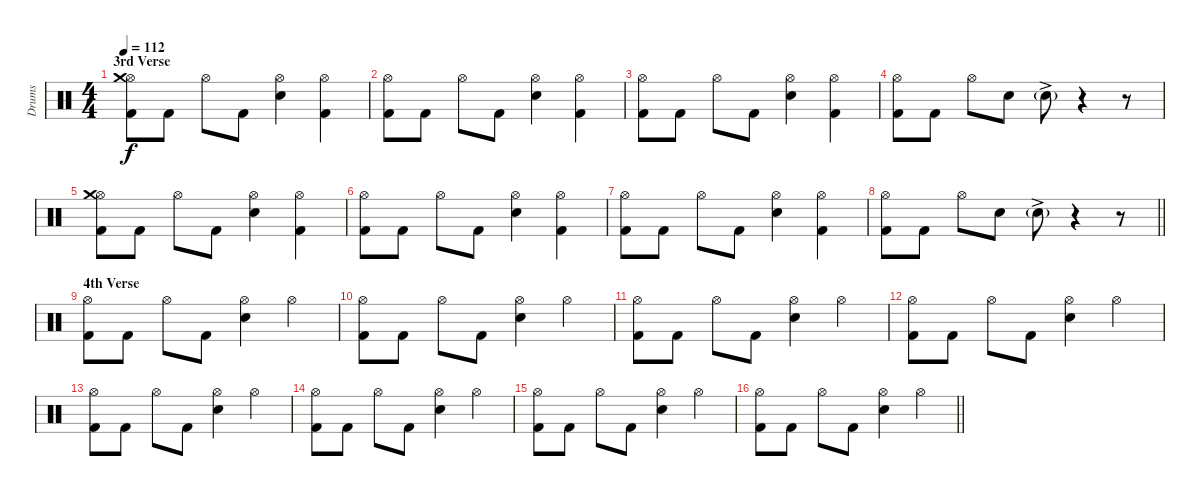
\track ("Drums" "Drums") {instrument percussion}
\staff {score}
\articulation defaults
\ts (4 4)
\section ("" "3rd Verse")
\tempo 112
\clef neutral
\ks c
("Kick (hit) 2" "Hi-Hat (open)" "Crash medium (hit)").8{dy f} "Kick (hit) 2".8 "Hi-Hat (open)".8 "Kick (hit) 2".8 ("Electric Snare (hit)" "Hi-Hat (open)").4 ("Kick (hit) 2" "Hi-Hat (open)").4 |
("Kick (hit) 2" "Hi-Hat (open)").8 "Kick (hit) 2".8 "Hi-Hat (open)".8 "Kick (hit) 2".8 ("Electric Snare (hit)" "Hi-Hat (open)").4 ("Kick (hit) 2" "Hi-Hat (open)").4 |
("Kick (hit) 2" "Hi-Hat (open)").8 "Kick (hit) 2".8 "Hi-Hat (open)".8 "Kick (hit) 2".8 ("Electric Snare (hit)" "Hi-Hat (open)").4 ("Kick (hit) 2" "Hi-Hat (open)").4 |
("Kick (hit) 2" "Hi-Hat (open)").8 "Kick (hit) 2".8 "Hi-Hat (open)".8 "Metronome (bell)".8 "Snare (hit)"{g ac}.8 r.4 r.8 |
("Kick (hit) 2" "Hi-Hat (open)" "Crash medium (hit)").8 "Kick (hit) 2".8 "Hi-Hat (open)".8 "Kick (hit) 2".8 ("Electric Snare (hit)" "Hi-Hat (open)").4 ("Kick (hit) 2" "Hi-Hat (open)").4 |
("Kick (hit) 2" "Hi-Hat (open)").8 "Kick (hit) 2".8 "Hi-Hat (open)".8 "Kick (hit) 2".8 ("Electric Snare (hit)" "Hi-Hat (open)").4 ("Kick (hit) 2" "Hi-Hat (open)").4 |
("Kick (hit) 2" "Hi-Hat (open)").8 "Kick (hit) 2".8 "Hi-Hat (open)".8 "Kick (hit) 2".8 ("Electric Snare (hit)" "Hi-Hat (open)").4 ("Kick (hit) 2" "Hi-Hat (open)").4 |
\barLineRight lightlight
("Kick (hit) 2" "Hi-Hat (open)").8 "Kick (hit) 2".8 "Hi-Hat (open)".8 "Metronome (bell)".8 "Snare (hit)"{g ac}.8 r.4 r.8 |
\section ("" "4th Verse")
("Kick (hit) 2" "Hi-Hat (open)").8 "Kick (hit) 2".8 "Hi-Hat (open)".8 "Kick (hit) 2".8 ("Electric Snare (hit)" "Hi-Hat (open)").4 "Hi-Hat (open)".4 |
("Kick (hit) 2" "Hi-Hat (open)").8 "Kick (hit) 2".8 "Hi-Hat (open)".8 "Kick (hit) 2".8 ("Electric Snare (hit)" "Hi-Hat (open)").4 "Hi-Hat (open)".4 |
("Kick (hit) 2" "Hi-Hat (open)").8 "Kick (hit) 2".8 "Hi-Hat (open)".8 "Kick (hit) 2".8 ("Electric Snare (hit)" "Hi-Hat (open)").4 "Hi-Hat (open)".4 |
("Kick (hit) 2" "Hi-Hat (open)").8 "Kick (hit) 2".8 "Hi-Hat (open)".8 "Kick (hit) 2".8 ("Electric Snare (hit)" "Hi-Hat (open)").4 "Hi-Hat (open)".4 |
("Kick (hit) 2" "Hi-Hat (open)").8 "Kick (hit) 2".8 "Hi-Hat (open)".8 "Kick (hit) 2".8 ("Electric Snare (hit)" "Hi-Hat (open)").4 "Hi-Hat (open)".4 |
("Kick (hit) 2" "Hi-Hat (open)").8 "Kick (hit) 2".8 "Hi-Hat (open)".8 "Kick (hit) 2".8 ("Electric Snare (hit)" "Hi-Hat (open)").4 "Hi-Hat (open)".4 |
("Kick (hit) 2" "Hi-Hat (open)").8 "Kick (hit) 2".8 "Hi-Hat (open)".8 "Kick (hit) 2".8 ("Electric Snare (hit)" "Hi-Hat (open)").4 "Hi-Hat (open)".4 |
\barLineRight lightlight
("Kick (hit) 2" "Hi-Hat (open)").8 "Kick (hit) 2".8 "Hi-Hat (open)".8 "Kick (hit) 2".8 ("Electric Snare (hit)" "Hi-Hat (open)").4 "Hi-Hat (open)".4
